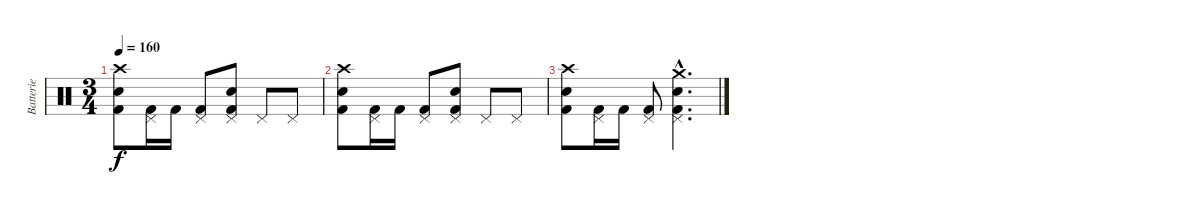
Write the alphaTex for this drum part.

\track ("Batterie" "Batterie") {instrument percussion}
\staff {score}
\articulation defaults
\ts (3 4)
\tempo 160
\clef neutral
\ks c
("Crash high (hit)" "Electric Snare (hit)" "Kick (hit) 2").8{dy f} ("Pedal Hi-Hat (hit)" "Kick (hit) 2").16 "Kick (hit) 2".16 ("Pedal Hi-Hat (hit)" "Kick (hit) 2").8 ("Pedal Hi-Hat (hit)" "Kick (hit) 2" "Electric Snare (hit)").8 "Pedal Hi-Hat (hit)".8 "Pedal Hi-Hat (hit)".8 |
("Crash high (hit)" "Electric Snare (hit)" "Kick (hit) 2").8 ("Pedal Hi-Hat (hit)" "Kick (hit) 2").16 "Kick (hit) 2".16 ("Pedal Hi-Hat (hit)" "Kick (hit) 2").8 ("Pedal Hi-Hat (hit)" "Kick (hit) 2" "Electric Snare (hit)").8 "Pedal Hi-Hat (hit)".8 "Pedal Hi-Hat (hit)".8 |
("Crash high (hit)" "Electric Snare (hit)" "Kick (hit) 2").8 ("Pedal Hi-Hat (hit)" "Kick (hit) 2").16 "Kick (hit) 2".16 ("Pedal Hi-Hat (hit)" "Kick (hit) 2").8 ("Crash medium (hit)"{hac} "Pedal Hi-Hat (hit)"{hac} "Kick (hit) 2"{hac} "Electric Snare (hit)"{hac}).4{d}
